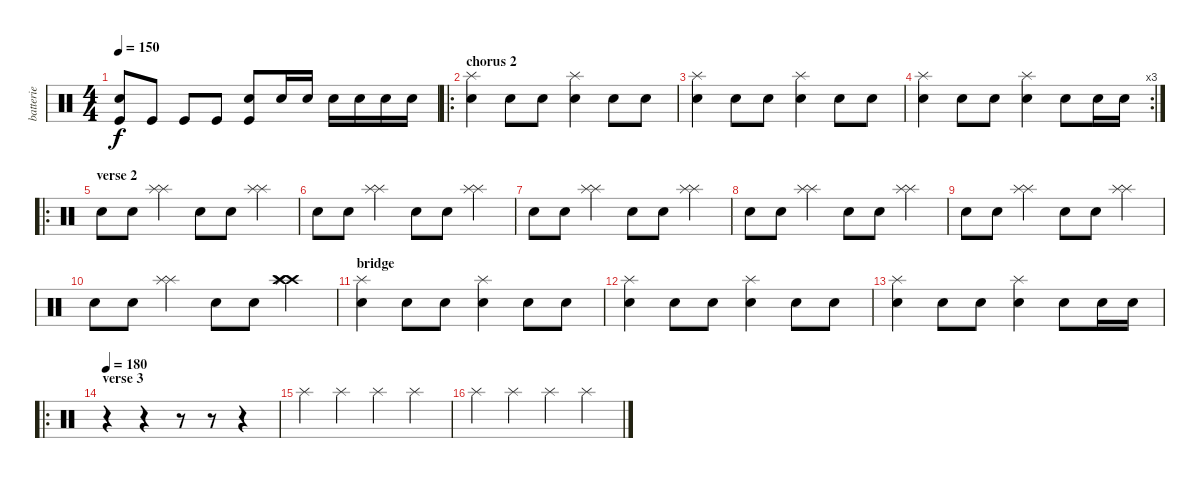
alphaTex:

\track ("batterie" "batterie") {instrument percussion}
\staff {score}
\articulation defaults
\ts (4 4)
\tempo 150
\clef neutral
\ks c
("Snare (hit) 2" "Kick (hit)").8{dy f} "Kick (hit)".8 "Kick (hit)".8 "Kick (hit)".8 ("Snare (hit) 2" "Kick (hit)").8 "Snare (hit) 2".16 "Snare (hit) 2".16 "Snare (hit) 2".16 "Snare (hit) 2".16 "Snare (hit) 2".16 "Snare (hit) 2".16 |
\ro
\section ("" "chorus 2")
("Splash (hit)" "Electric Snare (hit)").4 "Snare (hit) 2".8 "Snare (hit) 2".8 ("Splash (hit)" "Electric Snare (hit)").4 "Snare (hit) 2".8 "Snare (hit) 2".8 |
("Splash (hit)" "Electric Snare (hit)").4 "Snare (hit) 2".8 "Snare (hit) 2".8 ("Splash (hit)" "Electric Snare (hit)").4 "Snare (hit) 2".8 "Snare (hit) 2".8 |
\rc 3
("Splash (hit)" "Electric Snare (hit)").4 "Snare (hit) 2".8 "Snare (hit) 2".8 ("Splash (hit)" "Electric Snare (hit)").4 "Snare (hit) 2".8 "Snare (hit) 2".16 "Snare (hit) 2".16 |
\ro
\section ("" "verse 2")
"Electric Snare (hit)".8 "Electric Snare (hit)".8 ("Splash (hit)" "Splash (hit)").4 "Electric Snare (hit)".8 "Electric Snare (hit)".8 ("Splash (hit)" "Splash (hit)").4 |
"Electric Snare (hit)".8 "Electric Snare (hit)".8 ("Splash (hit)" "Splash (hit)").4 "Electric Snare (hit)".8 "Electric Snare (hit)".8 ("Splash (hit)" "Splash (hit)").4 |
"Electric Snare (hit)".8 "Electric Snare (hit)".8 ("Splash (hit)" "Splash (hit)").4 "Electric Snare (hit)".8 "Electric Snare (hit)".8 ("Splash (hit)" "Splash (hit)").4 |
"Electric Snare (hit)".8 "Electric Snare (hit)".8 ("Splash (hit)" "Splash (hit)").4 "Electric Snare (hit)".8 "Electric Snare (hit)".8 ("Splash (hit)" "Splash (hit)").4 |
"Electric Snare (hit)".8 "Electric Snare (hit)".8 ("Splash (hit)" "Splash (hit)").4 "Electric Snare (hit)".8 "Electric Snare (hit)".8 ("Splash (hit)" "Splash (hit)").4 |
"Electric Snare (hit)".8 "Electric Snare (hit)".8 ("Splash (hit)" "Splash (hit)").4 "Electric Snare (hit)".8 "Electric Snare (hit)".8 ("Crash high (hit)" "Crash high (hit)" "Splash (hit)" "Splash (hit)").4 |
\section ("" "bridge")
("Splash (hit)" "Electric Snare (hit)").4 "Snare (hit) 2".8 "Snare (hit) 2".8 ("Splash (hit)" "Electric Snare (hit)").4 "Snare (hit) 2".8 "Snare (hit) 2".8 |
("Splash (hit)" "Electric Snare (hit)").4 "Snare (hit) 2".8 "Snare (hit) 2".8 ("Splash (hit)" "Electric Snare (hit)").4 "Snare (hit) 2".8 "Snare (hit) 2".8 |
("Splash (hit)" "Electric Snare (hit)").4 "Snare (hit) 2".8 "Snare (hit) 2".8 ("Splash (hit)" "Electric Snare (hit)").4 "Snare (hit) 2".8 "Snare (hit) 2".16 "Snare (hit) 2".16 |
\ro
\section ("" "verse 3")
\tempo 180
r.4 r.4 r.8 r.8 r.4 |
"Splash (hit)".4 "Splash (hit)".4 "Splash (hit)".4 "Splash (hit)".4 |
"Splash (hit)".4 "Splash (hit)".4 "Splash (hit)".4 "Splash (hit)".4
